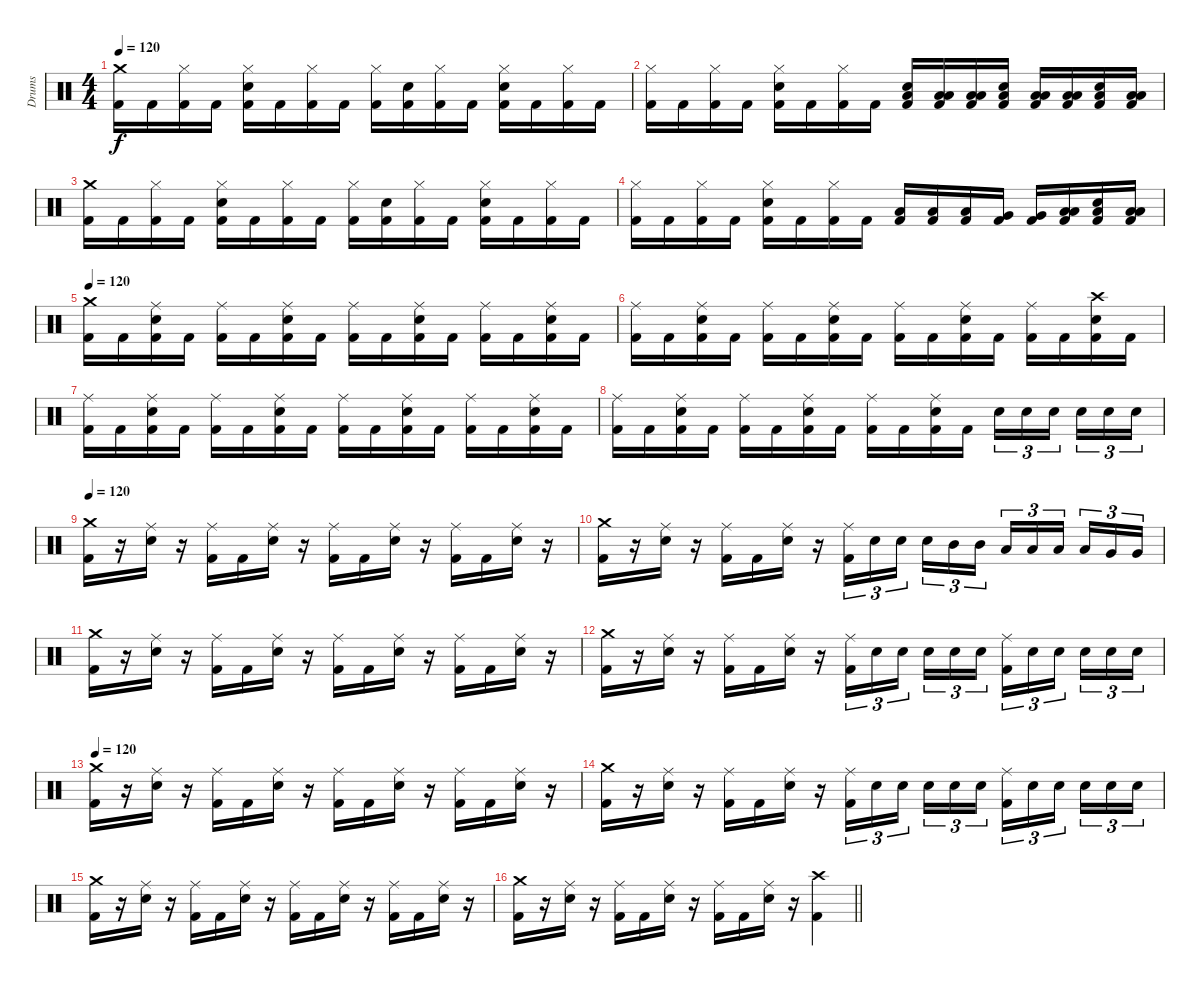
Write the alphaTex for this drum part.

\track ("Drums" "Drums") {instrument percussion}
\staff {score}
\articulation defaults
\ts (4 4)
\tempo 120
\clef neutral
\ks c
("Crash medium (hit)" "Kick (hit) 2").16{dy f} "Kick (hit) 2".16 ("Hi-Hat (closed)" "Kick (hit) 2").16 "Kick (hit) 2".16 ("Hi-Hat (closed)" "Electric Snare (hit)" "Kick (hit) 2").16 "Kick (hit) 2".16 ("Hi-Hat (closed)" "Kick (hit) 2").16 "Kick (hit) 2".16 ("Hi-Hat (closed)" "Kick (hit) 2").16 ("Electric Snare (hit)" "Kick (hit) 2").16 ("Hi-Hat (closed)" "Kick (hit) 2").16 "Kick (hit) 2".16 ("Hi-Hat (closed)" "Electric Snare (hit)" "Kick (hit) 2").16 "Kick (hit) 2".16 ("Hi-Hat (closed)" "Kick (hit) 2").16 "Kick (hit) 2".16 |
("Hi-Hat (closed)" "Kick (hit) 2").16 "Kick (hit) 2".16 ("Hi-Hat (closed)" "Kick (hit) 2").16 "Kick (hit) 2".16 ("Hi-Hat (closed)" "Electric Snare (hit)" "Kick (hit) 2").16 "Kick (hit) 2".16 ("Hi-Hat (closed)" "Kick (hit) 2").16 "Kick (hit) 2".16 ("Low Floor Tom (hit)" "Electric Snare (hit)" "Kick (hit) 2").16 ("Low Floor Tom (hit)" "Low Floor Tom (hit)" "Kick (hit) 2").16 ("Low Floor Tom (hit)" "Low Floor Tom (hit)" "Kick (hit) 2").16 ("Low Floor Tom (hit)" "Electric Snare (hit)" "Kick (hit) 2").16 ("Low Floor Tom (hit)" "Low Floor Tom (hit)" "Kick (hit) 2").16 ("Low Floor Tom (hit)" "Low Floor Tom (hit)" "Kick (hit) 2").16 ("Low Floor Tom (hit)" "Electric Snare (hit)" "Kick (hit) 2").16 ("Low Floor Tom (hit)" "Low Floor Tom (hit)" "Kick (hit) 2").16 |
("Crash medium (hit)" "Kick (hit) 2").16 "Kick (hit) 2".16 ("Hi-Hat (closed)" "Kick (hit) 2").16 "Kick (hit) 2".16 ("Hi-Hat (closed)" "Electric Snare (hit)" "Kick (hit) 2").16 "Kick (hit) 2".16 ("Hi-Hat (closed)" "Kick (hit) 2").16 "Kick (hit) 2".16 ("Hi-Hat (closed)" "Kick (hit) 2").16 ("Electric Snare (hit)" "Kick (hit) 2").16 ("Hi-Hat (closed)" "Kick (hit) 2").16 "Kick (hit) 2".16 ("Hi-Hat (closed)" "Electric Snare (hit)" "Kick (hit) 2").16 "Kick (hit) 2".16 ("Hi-Hat (closed)" "Kick (hit) 2").16 "Kick (hit) 2".16 |
("Hi-Hat (closed)" "Kick (hit) 2").16 "Kick (hit) 2".16 ("Hi-Hat (closed)" "Kick (hit) 2").16 "Kick (hit) 2".16 ("Hi-Hat (closed)" "Electric Snare (hit)" "Kick (hit) 2").16 "Kick (hit) 2".16 ("Hi-Hat (closed)" "Kick (hit) 2").16 "Kick (hit) 2".16 ("Low Tom (hit)" "Kick (hit) 2").16 ("Low Tom (hit)" "Kick (hit) 2").16 ("Low Floor Tom (hit)" "Kick (hit) 2").16 ("Very Low Tom (hit)" "Kick (hit) 2").16 ("Very Low Tom (hit)" "Kick (hit) 2").16 ("Low Floor Tom (hit)" "Low Floor Tom (hit)" "Kick (hit) 2").16 ("Low Floor Tom (hit)" "Electric Snare (hit)" "Kick (hit) 2").16 ("Low Floor Tom (hit)" "Low Floor Tom (hit)" "Kick (hit) 2").16 |
\tempo 120
("Crash medium (hit)" "Kick (hit) 2").16 "Kick (hit) 2".16 ("Ride (middle)" "Electric Snare (hit)" "Kick (hit) 2").16 "Kick (hit) 2".16 ("Ride (middle)" "Kick (hit) 2").16 "Kick (hit) 2".16 ("Ride (middle)" "Electric Snare (hit)" "Kick (hit) 2").16 "Kick (hit) 2".16 ("Ride (middle)" "Kick (hit) 2").16 "Kick (hit) 2".16 ("Ride (middle)" "Electric Snare (hit)" "Kick (hit) 2").16 "Kick (hit) 2".16 ("Ride (middle)" "Kick (hit) 2").16 "Kick (hit) 2".16 ("Ride (middle)" "Electric Snare (hit)" "Kick (hit) 2").16 "Kick (hit) 2".16 |
("Ride (middle)" "Kick (hit) 2").16 "Kick (hit) 2".16 ("Ride (middle)" "Electric Snare (hit)" "Kick (hit) 2").16 "Kick (hit) 2".16 ("Ride (middle)" "Kick (hit) 2").16 "Kick (hit) 2".16 ("Ride (middle)" "Electric Snare (hit)" "Kick (hit) 2").16 "Kick (hit) 2".16 ("Ride (middle)" "Kick (hit) 2").16 "Kick (hit) 2".16 ("Ride (middle)" "Electric Snare (hit)" "Kick (hit) 2").16 "Kick (hit) 2".16 ("Ride (middle)" "Kick (hit) 2").16 "Kick (hit) 2".16 ("Crash high (hit)" "Electric Snare (hit)" "Kick (hit) 2").16 "Kick (hit) 2".16 |
("Ride (middle)" "Kick (hit) 2").16 "Kick (hit) 2".16 ("Ride (middle)" "Electric Snare (hit)" "Kick (hit) 2").16 "Kick (hit) 2".16 ("Ride (middle)" "Kick (hit) 2").16 "Kick (hit) 2".16 ("Ride (middle)" "Electric Snare (hit)" "Kick (hit) 2").16 "Kick (hit) 2".16 ("Ride (middle)" "Kick (hit) 2").16 "Kick (hit) 2".16 ("Ride (middle)" "Electric Snare (hit)" "Kick (hit) 2").16 "Kick (hit) 2".16 ("Ride (middle)" "Kick (hit) 2").16 "Kick (hit) 2".16 ("Ride (middle)" "Electric Snare (hit)" "Kick (hit) 2").16 "Kick (hit) 2".16 |
("Ride (middle)" "Kick (hit) 2").16 "Kick (hit) 2".16 ("Ride (middle)" "Electric Snare (hit)" "Kick (hit) 2").16 "Kick (hit) 2".16 ("Ride (middle)" "Kick (hit) 2").16 "Kick (hit) 2".16 ("Ride (middle)" "Electric Snare (hit)" "Kick (hit) 2").16 "Kick (hit) 2".16 ("Ride (middle)" "Kick (hit) 2").16 "Kick (hit) 2".16 ("Ride (middle)" "Electric Snare (hit)" "Kick (hit) 2").16 "Kick (hit) 2".16 "Electric Snare (hit)".16{tu (3 2)} "Electric Snare (hit)".16{tu (3 2)} "Electric Snare (hit)".16{tu (3 2) beam splitsecondary} "Electric Snare (hit)".16{tu (3 2)} "Electric Snare (hit)".16{tu (3 2)} "Electric Snare (hit)".16{tu (3 2)} |
\tempo 120
("Crash medium (hit)" "Kick (hit) 2").16 r.16 ("Ride (middle)" "Electric Snare (hit)").16 r.16 ("Ride (middle)" "Kick (hit) 2").16 "Kick (hit) 2".16 ("Ride (middle)" "Electric Snare (hit)").16 r.16 ("Ride (middle)" "Kick (hit) 2").16 "Kick (hit) 2".16 ("Ride (middle)" "Electric Snare (hit)").16 r.16 ("Ride (middle)" "Kick (hit) 2").16 "Kick (hit) 2".16 ("Ride (middle)" "Electric Snare (hit)").16 r.16 |
("Crash medium (hit)" "Kick (hit) 2").16 r.16 ("Ride (middle)" "Electric Snare (hit)").16 r.16 ("Ride (middle)" "Kick (hit) 2").16 "Kick (hit) 2".16 ("Ride (middle)" "Electric Snare (hit)").16 r.16 ("Ride (middle)" "Kick (hit) 2").16{tu (3 2)} "Electric Snare (hit)".16{tu (3 2)} "Electric Snare (hit)".16{tu (3 2) beam splitsecondary} "Electric Snare (hit)".16{tu (3 2)} "Mid Tom (hit)".16{tu (3 2)} "Mid Tom (hit)".16{tu (3 2)} "Low Tom (hit)".16{tu (3 2)} "Low Tom (hit)".16{tu (3 2)} "Low Tom (hit)".16{tu (3 2) beam splitsecondary} "Low Tom (hit)".16{tu (3 2)} "Very Low Tom (hit)".16{tu (3 2)} "Very Low Tom (hit)".16{tu (3 2)} |
("Crash medium (hit)" "Kick (hit) 2").16 r.16 ("Ride (middle)" "Electric Snare (hit)").16 r.16 ("Ride (middle)" "Kick (hit) 2").16 "Kick (hit) 2".16 ("Ride (middle)" "Electric Snare (hit)").16 r.16 ("Ride (middle)" "Kick (hit) 2").16 "Kick (hit) 2".16 ("Ride (middle)" "Electric Snare (hit)").16 r.16 ("Ride (middle)" "Kick (hit) 2").16 "Kick (hit) 2".16 ("Ride (middle)" "Electric Snare (hit)").16 r.16 |
("Crash medium (hit)" "Kick (hit) 2").16 r.16 ("Ride (middle)" "Electric Snare (hit)").16 r.16 ("Ride (middle)" "Kick (hit) 2").16 "Kick (hit) 2".16 ("Ride (middle)" "Electric Snare (hit)").16 r.16 ("Ride (middle)" "Kick (hit) 2").16{tu (3 2)} "Electric Snare (hit)".16{tu (3 2)} "Electric Snare (hit)".16{tu (3 2) beam splitsecondary} "Electric Snare (hit)".16{tu (3 2)} "Electric Snare (hit)".16{tu (3 2)} "Electric Snare (hit)".16{tu (3 2)} ("Ride (middle)" "Kick (hit) 2").16{tu (3 2)} "Electric Snare (hit)".16{tu (3 2)} "Electric Snare (hit)".16{tu (3 2) beam splitsecondary} "Electric Snare (hit)".16{tu (3 2)} "Electric Snare (hit)".16{tu (3 2)} "Electric Snare (hit)".16{tu (3 2)} |
\tempo 120
("Crash medium (hit)" "Kick (hit) 2").16 r.16 ("Ride (middle)" "Electric Snare (hit)").16 r.16 ("Ride (middle)" "Kick (hit) 2").16 "Kick (hit) 2".16 ("Ride (middle)" "Electric Snare (hit)").16 r.16 ("Ride (middle)" "Kick (hit) 2").16 "Kick (hit) 2".16 ("Ride (middle)" "Electric Snare (hit)").16 r.16 ("Ride (middle)" "Kick (hit) 2").16 "Kick (hit) 2".16 ("Ride (middle)" "Electric Snare (hit)").16 r.16 |
("Crash medium (hit)" "Kick (hit) 2").16 r.16 ("Ride (middle)" "Electric Snare (hit)").16 r.16 ("Ride (middle)" "Kick (hit) 2").16 "Kick (hit) 2".16 ("Ride (middle)" "Electric Snare (hit)").16 r.16 ("Ride (middle)" "Kick (hit) 2").16{tu (3 2)} "Electric Snare (hit)".16{tu (3 2)} "Electric Snare (hit)".16{tu (3 2) beam splitsecondary} "Electric Snare (hit)".16{tu (3 2)} "Electric Snare (hit)".16{tu (3 2)} "Electric Snare (hit)".16{tu (3 2)} ("Ride (middle)" "Kick (hit) 2").16{tu (3 2)} "Electric Snare (hit)".16{tu (3 2)} "Electric Snare (hit)".16{tu (3 2) beam splitsecondary} "Electric Snare (hit)".16{tu (3 2)} "Electric Snare (hit)".16{tu (3 2)} "Electric Snare (hit)".16{tu (3 2)} |
("Crash medium (hit)" "Kick (hit) 2").16 r.16 ("Ride (middle)" "Electric Snare (hit)").16 r.16 ("Ride (middle)" "Kick (hit) 2").16 "Kick (hit) 2".16 ("Ride (middle)" "Electric Snare (hit)").16 r.16 ("Ride (middle)" "Kick (hit) 2").16 "Kick (hit) 2".16 ("Ride (middle)" "Electric Snare (hit)").16 r.16 ("Ride (middle)" "Kick (hit) 2").16 "Kick (hit) 2".16 ("Ride (middle)" "Electric Snare (hit)").16 r.16 |
\barLineRight lightlight
("Crash medium (hit)" "Kick (hit) 2").16 r.16 ("Ride (middle)" "Electric Snare (hit)").16 r.16 ("Ride (middle)" "Kick (hit) 2").16 "Kick (hit) 2".16 ("Ride (middle)" "Electric Snare (hit)").16 r.16 ("Ride (middle)" "Kick (hit) 2").16 "Kick (hit) 2".16 ("Ride (middle)" "Electric Snare (hit)").16 r.16 ("Crash high (hit)" "Kick (hit) 2").4
